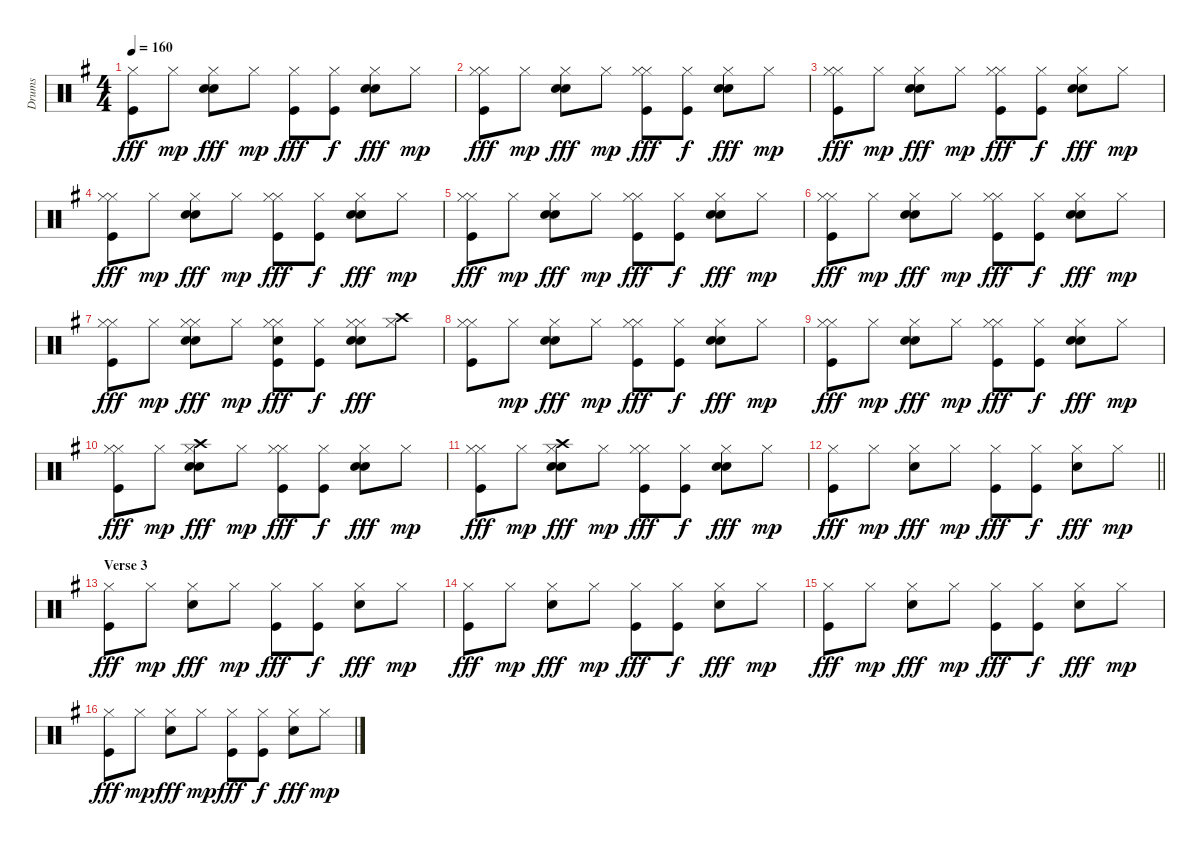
\track ("Drums" "Drums") {instrument percussion}
\staff {score}
\articulation defaults
\ts (4 4)
\tempo 160
\clef neutral
\ks g
("Hi-Hat (closed)" "Kick (hit)").8{dy fff} "Hi-Hat (closed)".8{dy mp} ("Snare (hit) 2" "Hi-Hat (closed)" "Electric Snare (hit)").8{dy fff} "Hi-Hat (closed)".8{dy mp} ("Hi-Hat (closed)" "Kick (hit)").8{dy fff} ("Hi-Hat (closed)" "Kick (hit)").8{dy f} ("Snare (hit) 2" "Hi-Hat (closed)" "Electric Snare (hit)").8{dy fff} "Hi-Hat (closed)".8{dy mp} |
("Hi-Hat (closed)" "Kick (hit)" "Hi-Hat (closed)").8{dy fff} "Hi-Hat (closed)".8{dy mp} ("Snare (hit) 2" "Hi-Hat (closed)" "Electric Snare (hit)").8{dy fff} "Hi-Hat (closed)".8{dy mp} ("Hi-Hat (closed)" "Kick (hit)" "Hi-Hat (closed)").8{dy fff} ("Hi-Hat (closed)" "Kick (hit)").8{dy f} ("Snare (hit) 2" "Hi-Hat (closed)" "Electric Snare (hit)").8{dy fff} "Hi-Hat (closed)".8{dy mp} |
("Hi-Hat (closed)" "Kick (hit)" "Hi-Hat (closed)").8{dy fff} "Hi-Hat (closed)".8{dy mp} ("Snare (hit) 2" "Hi-Hat (closed)" "Electric Snare (hit)").8{dy fff} "Hi-Hat (closed)".8{dy mp} ("Hi-Hat (closed)" "Kick (hit)" "Hi-Hat (closed)").8{dy fff} ("Hi-Hat (closed)" "Kick (hit)").8{dy f} ("Snare (hit) 2" "Hi-Hat (closed)" "Electric Snare (hit)").8{dy fff} "Hi-Hat (closed)".8{dy mp} |
("Hi-Hat (closed)" "Kick (hit)" "Hi-Hat (closed)").8{dy fff} "Hi-Hat (closed)".8{dy mp} ("Snare (hit) 2" "Hi-Hat (closed)" "Electric Snare (hit)").8{dy fff} "Hi-Hat (closed)".8{dy mp} ("Hi-Hat (closed)" "Kick (hit)" "Hi-Hat (closed)").8{dy fff} ("Hi-Hat (closed)" "Kick (hit)").8{dy f} ("Snare (hit) 2" "Hi-Hat (closed)" "Electric Snare (hit)").8{dy fff} "Hi-Hat (closed)".8{dy mp} |
("Hi-Hat (closed)" "Kick (hit)" "Hi-Hat (closed)").8{dy fff} "Hi-Hat (closed)".8{dy mp} ("Snare (hit) 2" "Hi-Hat (closed)" "Electric Snare (hit)").8{dy fff} "Hi-Hat (closed)".8{dy mp} ("Hi-Hat (closed)" "Kick (hit)" "Hi-Hat (closed)").8{dy fff} ("Hi-Hat (closed)" "Kick (hit)").8{dy f} ("Snare (hit) 2" "Hi-Hat (closed)" "Electric Snare (hit)").8{dy fff} "Hi-Hat (closed)".8{dy mp} |
("Hi-Hat (closed)" "Kick (hit)" "Hi-Hat (closed)").8{dy fff} "Hi-Hat (closed)".8{dy mp} ("Snare (hit) 2" "Hi-Hat (closed)" "Electric Snare (hit)").8{dy fff} "Hi-Hat (closed)".8{dy mp} ("Hi-Hat (closed)" "Kick (hit)" "Hi-Hat (closed)").8{dy fff} ("Hi-Hat (closed)" "Kick (hit)").8{dy f} ("Snare (hit) 2" "Hi-Hat (closed)" "Electric Snare (hit)").8{dy fff} "Hi-Hat (closed)".8{dy mp} |
("Hi-Hat (closed)" "Kick (hit)" "Hi-Hat (closed)").8{dy fff} "Hi-Hat (closed)".8{dy mp} ("Snare (hit) 2" "Hi-Hat (closed)" "Hi-Hat (closed)" "Electric Snare (hit)").8{dy fff} "Hi-Hat (closed)".8{dy mp} ("Hi-Hat (closed)" "Kick (hit)" "Hi-Hat (closed)" "Electric Snare (hit)").8{dy fff} ("Hi-Hat (closed)" "Kick (hit)").8{dy f} ("Snare (hit) 2" "Hi-Hat (closed)" "Hi-Hat (closed)" "Electric Snare (hit)").8{dy fff} ("Hi-Hat (closed)" "Crash high (hit)").8 |
("Hi-Hat (closed)" "Kick (hit)" "Hi-Hat (closed)").8 "Hi-Hat (closed)".8{dy mp} ("Snare (hit) 2" "Hi-Hat (closed)" "Electric Snare (hit)").8{dy fff} "Hi-Hat (closed)".8{dy mp} ("Hi-Hat (closed)" "Kick (hit)" "Hi-Hat (closed)").8{dy fff} ("Hi-Hat (closed)" "Kick (hit)").8{dy f} ("Snare (hit) 2" "Hi-Hat (closed)" "Electric Snare (hit)").8{dy fff} "Hi-Hat (closed)".8{dy mp} |
("Hi-Hat (closed)" "Kick (hit)" "Hi-Hat (closed)").8{dy fff} "Hi-Hat (closed)".8{dy mp} ("Snare (hit) 2" "Hi-Hat (closed)" "Electric Snare (hit)").8{dy fff} "Hi-Hat (closed)".8{dy mp} ("Hi-Hat (closed)" "Kick (hit)" "Hi-Hat (closed)").8{dy fff} ("Hi-Hat (closed)" "Kick (hit)").8{dy f} ("Snare (hit) 2" "Hi-Hat (closed)" "Electric Snare (hit)").8{dy fff} "Hi-Hat (closed)".8{dy mp} |
("Hi-Hat (closed)" "Kick (hit)" "Hi-Hat (closed)").8{dy fff} "Hi-Hat (closed)".8{dy mp} ("Snare (hit) 2" "Hi-Hat (closed)" "Electric Snare (hit)" "Crash high (hit)").8{dy fff} "Hi-Hat (closed)".8{dy mp} ("Hi-Hat (closed)" "Kick (hit)" "Hi-Hat (closed)").8{dy fff} ("Hi-Hat (closed)" "Kick (hit)").8{dy f} ("Snare (hit) 2" "Hi-Hat (closed)" "Electric Snare (hit)").8{dy fff} "Hi-Hat (closed)".8{dy mp} |
("Hi-Hat (closed)" "Kick (hit)" "Hi-Hat (closed)").8{dy fff} "Hi-Hat (closed)".8{dy mp} ("Snare (hit) 2" "Hi-Hat (closed)" "Electric Snare (hit)" "Crash high (hit)").8{dy fff} "Hi-Hat (closed)".8{dy mp} ("Hi-Hat (closed)" "Kick (hit)" "Hi-Hat (closed)").8{dy fff} ("Hi-Hat (closed)" "Kick (hit)").8{dy f} ("Snare (hit) 2" "Hi-Hat (closed)" "Electric Snare (hit)").8{dy fff} "Hi-Hat (closed)".8{dy mp} |
\barLineRight lightlight
("Hi-Hat (closed)" "Kick (hit)").8{dy fff} "Hi-Hat (closed)".8{dy mp} ("Snare (hit) 2" "Hi-Hat (closed)").8{dy fff} "Hi-Hat (closed)".8{dy mp} ("Hi-Hat (closed)" "Kick (hit)").8{dy fff} ("Hi-Hat (closed)" "Kick (hit)").8{dy f} ("Snare (hit) 2" "Hi-Hat (closed)").8{dy fff} "Hi-Hat (closed)".8{dy mp} |
\section ("" "Verse 3")
("Hi-Hat (closed)" "Kick (hit)").8{dy fff} "Hi-Hat (closed)".8{dy mp} ("Snare (hit) 2" "Hi-Hat (closed)").8{dy fff} "Hi-Hat (closed)".8{dy mp} ("Hi-Hat (closed)" "Kick (hit)").8{dy fff} ("Hi-Hat (closed)" "Kick (hit)").8{dy f} ("Snare (hit) 2" "Hi-Hat (closed)").8{dy fff} "Hi-Hat (closed)".8{dy mp} |
("Hi-Hat (closed)" "Kick (hit)").8{dy fff} "Hi-Hat (closed)".8{dy mp} ("Snare (hit) 2" "Hi-Hat (closed)").8{dy fff} "Hi-Hat (closed)".8{dy mp} ("Hi-Hat (closed)" "Kick (hit)").8{dy fff} ("Hi-Hat (closed)" "Kick (hit)").8{dy f} ("Snare (hit) 2" "Hi-Hat (closed)").8{dy fff} "Hi-Hat (closed)".8{dy mp} |
("Hi-Hat (closed)" "Kick (hit)").8{dy fff} "Hi-Hat (closed)".8{dy mp} ("Snare (hit) 2" "Hi-Hat (closed)").8{dy fff} "Hi-Hat (closed)".8{dy mp} ("Hi-Hat (closed)" "Kick (hit)").8{dy fff} ("Hi-Hat (closed)" "Kick (hit)").8{dy f} ("Snare (hit) 2" "Hi-Hat (closed)").8{dy fff} "Hi-Hat (closed)".8{dy mp} |
("Hi-Hat (closed)" "Kick (hit)").8{dy fff} "Hi-Hat (closed)".8{dy mp} ("Snare (hit) 2" "Hi-Hat (closed)").8{dy fff} "Hi-Hat (closed)".8{dy mp} ("Hi-Hat (closed)" "Kick (hit)").8{dy fff} ("Hi-Hat (closed)" "Kick (hit)").8{dy f} ("Snare (hit) 2" "Hi-Hat (closed)").8{dy fff} "Hi-Hat (closed)".8{dy mp}
